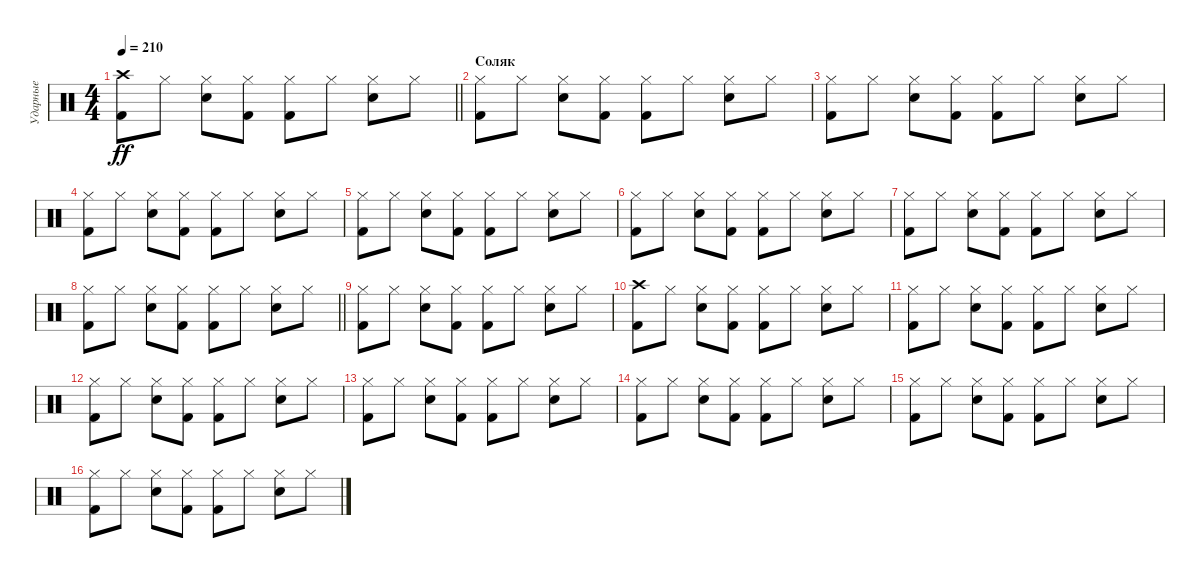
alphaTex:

\track ("Ударные" "Ударные") {instrument percussion}
\staff {score}
\articulation defaults
\ts (4 4)
\tempo 210
\clef neutral
\barLineRight lightlight
\ks c
("Crash high (hit)" "Kick (hit) 2").8{dy ff} "Hi-Hat (closed)".8 ("Hi-Hat (closed)" "Snare (hit) 2").8 ("Hi-Hat (closed)" "Kick (hit) 2").8 ("Hi-Hat (closed)" "Kick (hit) 2").8 "Hi-Hat (closed)".8 ("Hi-Hat (closed)" "Snare (hit) 2").8 "Hi-Hat (closed)".8 |
\section ("" "Соляк")
("Hi-Hat (closed)" "Kick (hit) 2").8 "Hi-Hat (closed)".8 ("Hi-Hat (closed)" "Snare (hit) 2").8 ("Hi-Hat (closed)" "Kick (hit) 2").8 ("Hi-Hat (closed)" "Kick (hit) 2").8 "Hi-Hat (closed)".8 ("Hi-Hat (closed)" "Snare (hit) 2").8 "Hi-Hat (closed)".8 |
("Hi-Hat (closed)" "Kick (hit) 2").8 "Hi-Hat (closed)".8 ("Hi-Hat (closed)" "Snare (hit) 2").8 ("Hi-Hat (closed)" "Kick (hit) 2").8 ("Hi-Hat (closed)" "Kick (hit) 2").8 "Hi-Hat (closed)".8 ("Hi-Hat (closed)" "Snare (hit) 2").8 "Hi-Hat (closed)".8 |
("Hi-Hat (closed)" "Kick (hit) 2").8 "Hi-Hat (closed)".8 ("Hi-Hat (closed)" "Snare (hit) 2").8 ("Hi-Hat (closed)" "Kick (hit) 2").8 ("Hi-Hat (closed)" "Kick (hit) 2").8 "Hi-Hat (closed)".8 ("Hi-Hat (closed)" "Snare (hit) 2").8 "Hi-Hat (closed)".8 |
("Hi-Hat (closed)" "Kick (hit) 2").8 "Hi-Hat (closed)".8 ("Hi-Hat (closed)" "Snare (hit) 2").8 ("Hi-Hat (closed)" "Kick (hit) 2").8 ("Hi-Hat (closed)" "Kick (hit) 2").8 "Hi-Hat (closed)".8 ("Hi-Hat (closed)" "Snare (hit) 2").8 "Hi-Hat (closed)".8 |
("Hi-Hat (closed)" "Kick (hit) 2").8 "Hi-Hat (closed)".8 ("Hi-Hat (closed)" "Snare (hit) 2").8 ("Hi-Hat (closed)" "Kick (hit) 2").8 ("Hi-Hat (closed)" "Kick (hit) 2").8 "Hi-Hat (closed)".8 ("Hi-Hat (closed)" "Snare (hit) 2").8 "Hi-Hat (closed)".8 |
("Hi-Hat (closed)" "Kick (hit) 2").8 "Hi-Hat (closed)".8 ("Hi-Hat (closed)" "Snare (hit) 2").8 ("Hi-Hat (closed)" "Kick (hit) 2").8 ("Hi-Hat (closed)" "Kick (hit) 2").8 "Hi-Hat (closed)".8 ("Hi-Hat (closed)" "Snare (hit) 2").8 "Hi-Hat (closed)".8 |
\barLineRight lightlight
("Hi-Hat (closed)" "Kick (hit) 2").8 "Hi-Hat (closed)".8 ("Hi-Hat (closed)" "Snare (hit) 2").8 ("Hi-Hat (closed)" "Kick (hit) 2").8 ("Hi-Hat (closed)" "Kick (hit) 2").8 "Hi-Hat (closed)".8 ("Hi-Hat (closed)" "Snare (hit) 2").8 "Hi-Hat (closed)".8 |
("Hi-Hat (closed)" "Kick (hit) 2").8 "Hi-Hat (closed)".8 ("Hi-Hat (closed)" "Snare (hit) 2").8 ("Hi-Hat (closed)" "Kick (hit) 2").8 ("Hi-Hat (closed)" "Kick (hit) 2").8 "Hi-Hat (closed)".8 ("Hi-Hat (closed)" "Snare (hit) 2").8 "Hi-Hat (closed)".8 |
("Crash high (hit)" "Kick (hit) 2").8 "Hi-Hat (closed)".8 ("Hi-Hat (closed)" "Snare (hit) 2").8 ("Hi-Hat (closed)" "Kick (hit) 2").8 ("Hi-Hat (closed)" "Kick (hit) 2").8 "Hi-Hat (closed)".8 ("Hi-Hat (closed)" "Snare (hit) 2").8 "Hi-Hat (closed)".8 |
("Hi-Hat (closed)" "Kick (hit) 2").8 "Hi-Hat (closed)".8 ("Hi-Hat (closed)" "Snare (hit) 2").8 ("Hi-Hat (closed)" "Kick (hit) 2").8 ("Hi-Hat (closed)" "Kick (hit) 2").8 "Hi-Hat (closed)".8 ("Hi-Hat (closed)" "Snare (hit) 2").8 "Hi-Hat (closed)".8 |
("Hi-Hat (closed)" "Kick (hit) 2").8 "Hi-Hat (closed)".8 ("Hi-Hat (closed)" "Snare (hit) 2").8 ("Hi-Hat (closed)" "Kick (hit) 2").8 ("Hi-Hat (closed)" "Kick (hit) 2").8 "Hi-Hat (closed)".8 ("Hi-Hat (closed)" "Snare (hit) 2").8 "Hi-Hat (closed)".8 |
("Hi-Hat (closed)" "Kick (hit) 2").8 "Hi-Hat (closed)".8 ("Hi-Hat (closed)" "Snare (hit) 2").8 ("Hi-Hat (closed)" "Kick (hit) 2").8 ("Hi-Hat (closed)" "Kick (hit) 2").8 "Hi-Hat (closed)".8 ("Hi-Hat (closed)" "Snare (hit) 2").8 "Hi-Hat (closed)".8 |
("Hi-Hat (closed)" "Kick (hit) 2").8 "Hi-Hat (closed)".8 ("Hi-Hat (closed)" "Snare (hit) 2").8 ("Hi-Hat (closed)" "Kick (hit) 2").8 ("Hi-Hat (closed)" "Kick (hit) 2").8 "Hi-Hat (closed)".8 ("Hi-Hat (closed)" "Snare (hit) 2").8 "Hi-Hat (closed)".8 |
("Hi-Hat (closed)" "Kick (hit) 2").8 "Hi-Hat (closed)".8 ("Hi-Hat (closed)" "Snare (hit) 2").8 ("Hi-Hat (closed)" "Kick (hit) 2").8 ("Hi-Hat (closed)" "Kick (hit) 2").8 "Hi-Hat (closed)".8 ("Hi-Hat (closed)" "Snare (hit) 2").8 "Hi-Hat (closed)".8 |
("Hi-Hat (closed)" "Kick (hit) 2").8 "Hi-Hat (closed)".8 ("Hi-Hat (closed)" "Snare (hit) 2").8 ("Hi-Hat (closed)" "Kick (hit) 2").8 ("Hi-Hat (closed)" "Kick (hit) 2").8 "Hi-Hat (closed)".8 ("Hi-Hat (closed)" "Snare (hit) 2").8 "Hi-Hat (closed)".8
